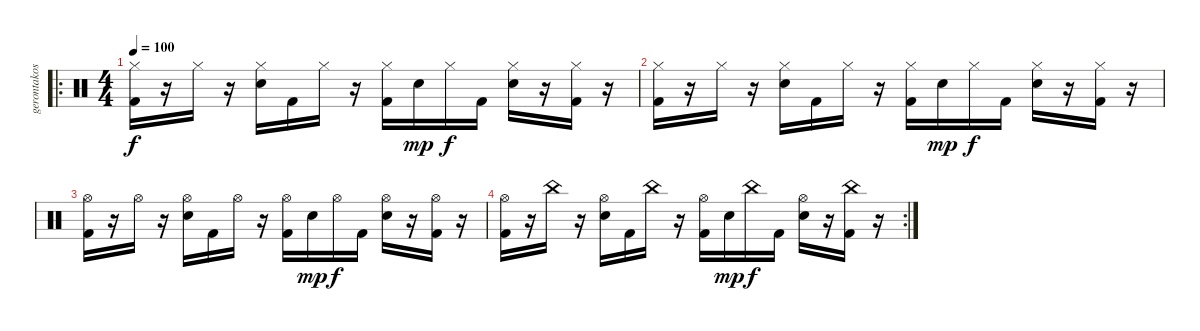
\track ("gerontakos" "gerontakos") {instrument percussion}
\staff {score}
\articulation defaults
\ro
\ts (4 4)
\tempo 100
\clef neutral
\ks c
("Hi-Hat (closed)" "Kick (hit) 2").16{dy f} r.16 "Hi-Hat (closed)".16 r.16 ("Hi-Hat (closed)" "Electric Snare (hit)").16 "Kick (hit) 2".16 "Hi-Hat (closed)".16 r.16 ("Hi-Hat (closed)" "Kick (hit) 2").16 "Electric Snare (hit)".16{dy mp} "Hi-Hat (closed)".16{dy f} "Kick (hit) 2".16 ("Hi-Hat (closed)" "Electric Snare (hit)").16 r.16 ("Hi-Hat (closed)" "Kick (hit) 2").16 r.16 |
("Hi-Hat (closed)" "Kick (hit) 2").16 r.16 "Hi-Hat (closed)".16 r.16 ("Hi-Hat (closed)" "Electric Snare (hit)").16 "Kick (hit) 2".16 "Hi-Hat (closed)".16 r.16 ("Hi-Hat (closed)" "Kick (hit) 2").16 "Electric Snare (hit)".16{dy mp} "Hi-Hat (closed)".16{dy f} "Kick (hit) 2".16 ("Hi-Hat (closed)" "Electric Snare (hit)").16 r.16 ("Hi-Hat (closed)" "Kick (hit) 2").16 r.16 |
("Hi-Hat (open)" "Kick (hit) 2").16 r.16 "Hi-Hat (open)".16 r.16 ("Hi-Hat (open)" "Electric Snare (hit)").16 "Kick (hit) 2".16 "Hi-Hat (open)".16 r.16 ("Hi-Hat (open)" "Kick (hit) 2").16 "Electric Snare (hit)".16{dy mp} "Hi-Hat (open)".16{dy f} "Kick (hit) 2".16 ("Hi-Hat (open)" "Electric Snare (hit)").16 r.16 ("Hi-Hat (open)" "Kick (hit) 2").16 r.16 |
\rc 2
("Hi-Hat (open)" "Kick (hit) 2").16 r.16 "China (hit)".16 r.16 ("Hi-Hat (open)" "Electric Snare (hit)").16 "Kick (hit) 2".16 "China (hit)".16 r.16 ("Hi-Hat (open)" "Kick (hit) 2").16 "Electric Snare (hit)".16{dy mp} "China (hit)".16{dy f} "Kick (hit) 2".16 ("Hi-Hat (open)" "Electric Snare (hit)").16 r.16 ("China (hit)" "Kick (hit) 2").16 r.16
